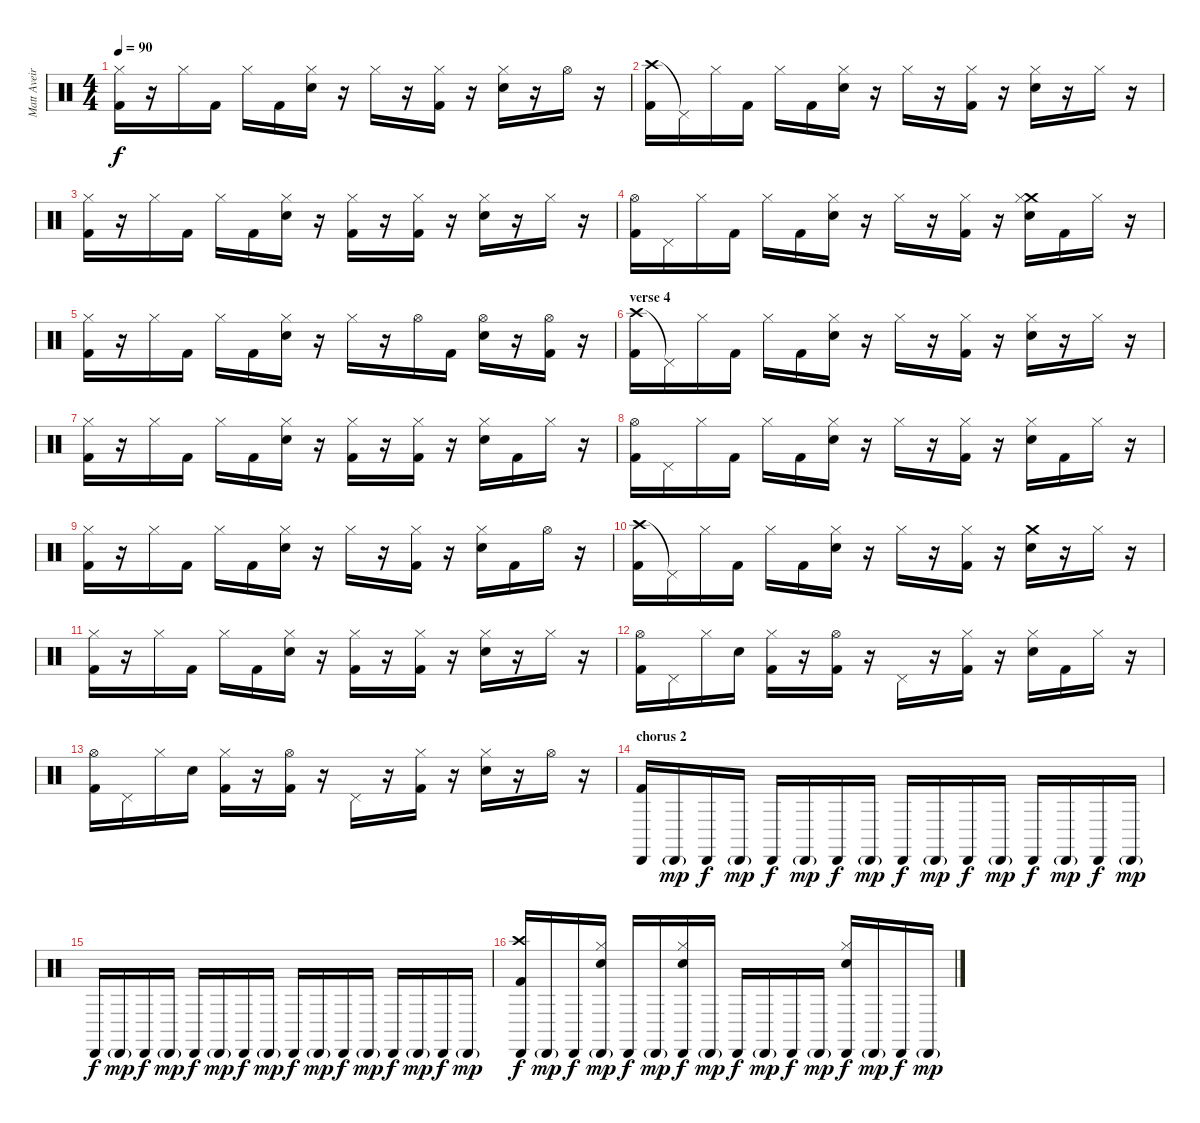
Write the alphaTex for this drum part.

\track ("Matt Aveiro-drums" "Matt Aveir") {instrument percussion}
\staff {score}
\articulation defaults
\ts (4 4)
\tempo 90
\clef neutral
\ks c
("Hi-Hat (closed)" "Kick (hit) 2").16{dy f} r.16 "Hi-Hat (closed)".16 "Kick (hit) 2".16 "Hi-Hat (closed)".16 "Kick (hit) 2".16 ("Hi-Hat (closed)" "Snare (hit) 2").16 r.16 "Hi-Hat (closed)".16 r.16 ("Hi-Hat (closed)" "Kick (hit) 2").16 r.16 ("Hi-Hat (closed)" "Snare (hit) 2").16 r.16 "Hi-Hat (open)".16 r.16 |
("Crash high (hit)" "Kick (hit) 2").16 "Pedal Hi-Hat (hit)"{t}.16 "Hi-Hat (closed)".16 "Kick (hit) 2".16 "Hi-Hat (closed)".16 "Kick (hit) 2".16 ("Hi-Hat (closed)" "Snare (hit) 2").16 r.16 "Hi-Hat (closed)".16 r.16 ("Hi-Hat (closed)" "Kick (hit) 2").16 r.16 ("Hi-Hat (closed)" "Snare (hit) 2").16 r.16 "Hi-Hat (closed)".16 r.16 |
("Hi-Hat (closed)" "Kick (hit) 2").16 r.16 "Hi-Hat (closed)".16 "Kick (hit) 2".16 "Hi-Hat (closed)".16 "Kick (hit) 2".16 ("Hi-Hat (closed)" "Snare (hit) 2").16 r.16 ("Hi-Hat (closed)" "Kick (hit) 2").16 r.16 ("Hi-Hat (closed)" "Kick (hit) 2").16 r.16 ("Hi-Hat (closed)" "Snare (hit) 2").16 r.16 "Hi-Hat (closed)".16 r.16 |
("Hi-Hat (open)" "Kick (hit) 2").16 "Pedal Hi-Hat (hit)".16 "Hi-Hat (closed)".16 "Kick (hit) 2".16 "Hi-Hat (closed)".16 "Kick (hit) 2".16 ("Hi-Hat (closed)" "Snare (hit) 2").16 r.16 "Hi-Hat (closed)".16 r.16 ("Hi-Hat (closed)" "Kick (hit) 2").16 r.16 ("Crash medium (hit)" "Hi-Hat (closed)" "Snare (hit) 2").16 "Kick (hit) 2".16 "Hi-Hat (closed)".16 r.16 |
("Hi-Hat (closed)" "Kick (hit) 2").16 r.16 "Hi-Hat (closed)".16 "Kick (hit) 2".16 "Hi-Hat (closed)".16 "Kick (hit) 2".16 ("Hi-Hat (closed)" "Snare (hit) 2").16 r.16 "Hi-Hat (closed)".16 r.16 "Hi-Hat (open)".16 "Kick (hit) 2".16 ("Hi-Hat (open)" "Snare (hit) 2").16 r.16 ("Hi-Hat (open)" "Kick (hit) 2").16 r.16 |
\section ("" "verse 4")
("Crash high (hit)" "Kick (hit) 2").16 "Pedal Hi-Hat (hit)"{t}.16 "Hi-Hat (closed)".16 "Kick (hit) 2".16 "Hi-Hat (closed)".16 "Kick (hit) 2".16 ("Hi-Hat (closed)" "Snare (hit) 2").16 r.16 "Hi-Hat (closed)".16 r.16 ("Hi-Hat (closed)" "Kick (hit) 2").16 r.16 ("Hi-Hat (closed)" "Snare (hit) 2").16 r.16 "Hi-Hat (closed)".16 r.16 |
("Hi-Hat (closed)" "Kick (hit) 2").16 r.16 "Hi-Hat (closed)".16 "Kick (hit) 2".16 "Hi-Hat (closed)".16 "Kick (hit) 2".16 ("Hi-Hat (closed)" "Snare (hit) 2").16 r.16 ("Hi-Hat (closed)" "Kick (hit) 2").16 r.16 ("Hi-Hat (closed)" "Kick (hit) 2").16 r.16 ("Hi-Hat (closed)" "Snare (hit) 2").16 "Kick (hit) 2".16 "Hi-Hat (closed)".16 r.16 |
("Hi-Hat (open)" "Kick (hit) 2").16 "Pedal Hi-Hat (hit)".16 "Hi-Hat (closed)".16 "Kick (hit) 2".16 "Hi-Hat (closed)".16 "Kick (hit) 2".16 ("Hi-Hat (closed)" "Snare (hit) 2").16 r.16 "Hi-Hat (closed)".16 r.16 ("Hi-Hat (closed)" "Kick (hit) 2").16 r.16 ("Hi-Hat (closed)" "Snare (hit) 2").16 "Kick (hit) 2".16 "Hi-Hat (closed)".16 r.16 |
("Hi-Hat (closed)" "Kick (hit) 2").16 r.16 "Hi-Hat (closed)".16 "Kick (hit) 2".16 "Hi-Hat (closed)".16 "Kick (hit) 2".16 ("Hi-Hat (closed)" "Snare (hit) 2").16 r.16 "Hi-Hat (closed)".16 r.16 ("Hi-Hat (closed)" "Kick (hit) 2").16 r.16 ("Hi-Hat (closed)" "Snare (hit) 2").16 "Kick (hit) 2".16 "Hi-Hat (open)".16 r.16 |
("Crash high (hit)" "Kick (hit) 2").16 "Pedal Hi-Hat (hit)"{t}.16 "Hi-Hat (closed)".16 "Kick (hit) 2".16 "Hi-Hat (closed)".16 "Kick (hit) 2".16 ("Hi-Hat (closed)" "Snare (hit) 2").16 r.16 "Hi-Hat (closed)".16 r.16 ("Hi-Hat (closed)" "Kick (hit) 2").16 r.16 ("Crash medium (hit)" "Snare (hit) 2").16 r.16 "Hi-Hat (closed)".16 r.16 |
("Hi-Hat (closed)" "Kick (hit) 2").16 r.16 "Hi-Hat (closed)".16 "Kick (hit) 2".16 "Hi-Hat (closed)".16 "Kick (hit) 2".16 ("Hi-Hat (closed)" "Snare (hit) 2").16 r.16 ("Hi-Hat (closed)" "Kick (hit) 2").16 r.16 ("Hi-Hat (closed)" "Kick (hit) 2").16 r.16 ("Hi-Hat (closed)" "Snare (hit) 2").16 r.16 "Hi-Hat (closed)".16 r.16 |
("Hi-Hat (open)" "Kick (hit) 2").16 "Pedal Hi-Hat (hit)".16 "Hi-Hat (closed)".16 "Snare (hit) 2".16 ("Hi-Hat (closed)" "Kick (hit) 2").16 r.16 ("Hi-Hat (open)" "Kick (hit) 2").16 r.16 "Pedal Hi-Hat (hit)".16 r.16 ("Hi-Hat (closed)" "Kick (hit) 2").16 r.16 ("Hi-Hat (closed)" "Snare (hit) 2").16 "Kick (hit) 2".16 "Hi-Hat (closed)".16 r.16 |
("Hi-Hat (open)" "Kick (hit) 2").16 "Pedal Hi-Hat (hit)".16 "Hi-Hat (closed)".16 "Snare (hit) 2".16 ("Hi-Hat (closed)" "Kick (hit) 2").16 r.16 ("Hi-Hat (open)" "Kick (hit) 2").16 r.16 "Pedal Hi-Hat (hit)".16 r.16 ("Hi-Hat (closed)" "Kick (hit) 2").16 r.16 ("Hi-Hat (closed)" "Snare (hit) 2").16 r.16 "Hi-Hat (open)".16 r.16 |
\section ("" "chorus 2")
("Cabasa (hit)" "Kick (hit) 2").16 "Cabasa (hit)"{g}.16{dy mp} "Cabasa (hit)".16{dy f} "Cabasa (hit)"{g}.16{dy mp} "Cabasa (hit)".16{dy f} "Cabasa (hit)"{g}.16{dy mp} "Cabasa (hit)".16{dy f} "Cabasa (hit)"{g}.16{dy mp} "Cabasa (hit)".16{dy f} "Cabasa (hit)"{g}.16{dy mp} "Cabasa (hit)".16{dy f} "Cabasa (hit)"{g}.16{dy mp} "Cabasa (hit)".16{dy f} "Cabasa (hit)"{g}.16{dy mp} "Cabasa (hit)".16{dy f} "Cabasa (hit)"{g}.16{dy mp} |
"Cabasa (hit)".16{dy f} "Cabasa (hit)"{g}.16{dy mp} "Cabasa (hit)".16{dy f} "Cabasa (hit)"{g}.16{dy mp} "Cabasa (hit)".16{dy f} "Cabasa (hit)"{g}.16{dy mp} "Cabasa (hit)".16{dy f} "Cabasa (hit)"{g}.16{dy mp} "Cabasa (hit)".16{dy f} "Cabasa (hit)"{g}.16{dy mp} "Cabasa (hit)".16{dy f} "Cabasa (hit)"{g}.16{dy mp} "Cabasa (hit)".16{dy f} "Cabasa (hit)"{g}.16{dy mp} "Cabasa (hit)".16{dy f} "Cabasa (hit)"{g}.16{dy mp} |
("Cabasa (hit)" "Crash high (hit)" "Kick (hit) 2").16{dy f} "Cabasa (hit)"{g}.16{dy mp} "Cabasa (hit)".16{dy f} ("Cabasa (hit)"{g} "Hi-Hat (closed)" "Snare (hit) 2").16{dy mp} "Cabasa (hit)".16{dy f} "Cabasa (hit)"{g}.16{dy mp} ("Cabasa (hit)" "Hi-Hat (closed)" "Snare (hit) 2").16{dy f} "Cabasa (hit)"{g}.16{dy mp} "Cabasa (hit)".16{dy f} "Cabasa (hit)"{g}.16{dy mp} "Cabasa (hit)".16{dy f} "Cabasa (hit)"{g}.16{dy mp} ("Cabasa (hit)" "Hi-Hat (closed)" "Snare (hit) 2").16{dy f} "Cabasa (hit)"{g}.16{dy mp} "Cabasa (hit)".16{dy f} "Cabasa (hit)"{g}.16{dy mp}
